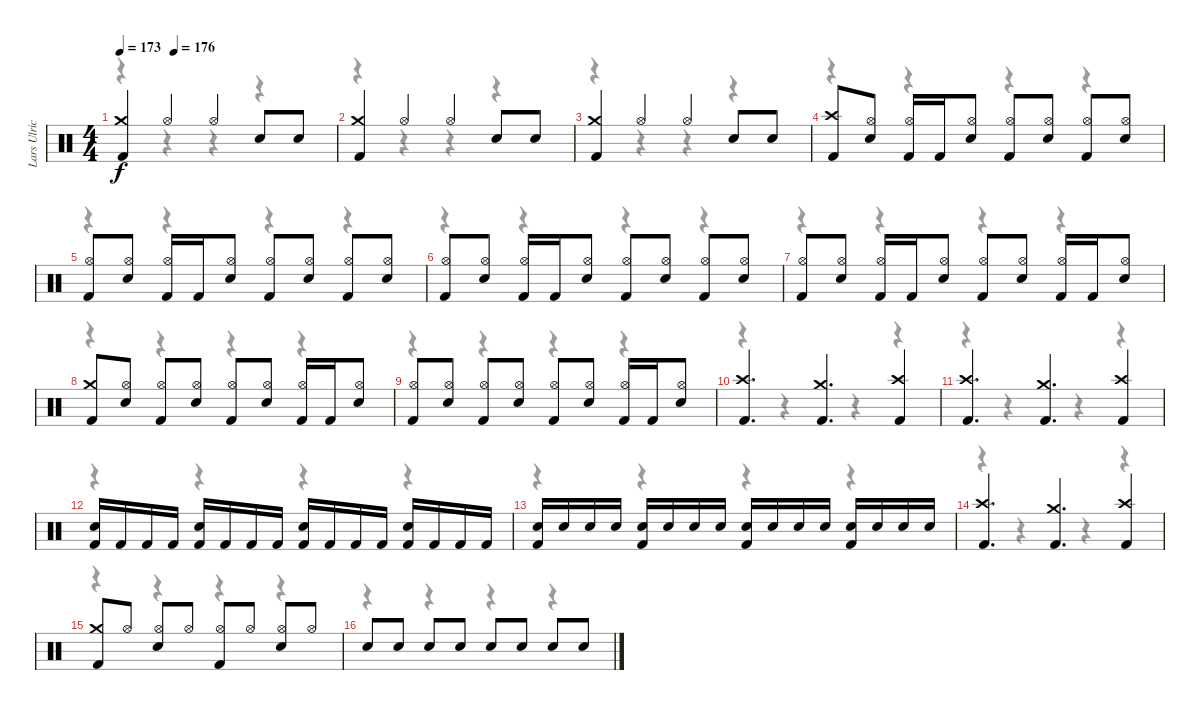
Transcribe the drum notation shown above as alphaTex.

\track ("Lars Ulrich" "Lars Ulric") {instrument percussion}
\staff {score}
\articulation defaults
\voice
\ts (4 4)
\tempo 173
\tempo (176 0.25)
\clef neutral
\ks c
("Crash medium (hit)" "Kick (hit) 2").4{dy f} "Hi-Hat (open)".4 "Hi-Hat (open)".4 "Snare (hit) 2".8 "Snare (hit) 2".8 |
("Crash medium (hit)" "Kick (hit) 2").4 "Hi-Hat (open)".4 "Hi-Hat (open)".4 "Snare (hit) 2".8 "Snare (hit) 2".8 |
("Crash medium (hit)" "Kick (hit) 2").4 "Hi-Hat (open)".4 "Hi-Hat (open)".4 "Snare (hit) 2".8 "Snare (hit) 2".8 |
("Crash high (hit)" "Kick (hit) 2").8 ("Hi-Hat (open)" "Snare (hit) 2").8 ("Hi-Hat (open)" "Kick (hit) 2").16 "Kick (hit) 2".16 ("Hi-Hat (open)" "Snare (hit) 2").8 ("Hi-Hat (open)" "Kick (hit) 2").8 ("Hi-Hat (open)" "Snare (hit) 2").8 ("Hi-Hat (open)" "Kick (hit) 2").8 ("Hi-Hat (open)" "Snare (hit) 2").8 |
("Hi-Hat (open)" "Kick (hit) 2").8 ("Hi-Hat (open)" "Snare (hit) 2").8 ("Hi-Hat (open)" "Kick (hit) 2").16 "Kick (hit) 2".16 ("Hi-Hat (open)" "Snare (hit) 2").8 ("Hi-Hat (open)" "Kick (hit) 2").8 ("Hi-Hat (open)" "Snare (hit) 2").8 ("Hi-Hat (open)" "Kick (hit) 2").8 ("Hi-Hat (open)" "Snare (hit) 2").8 |
("Hi-Hat (open)" "Kick (hit) 2").8 ("Hi-Hat (open)" "Snare (hit) 2").8 ("Hi-Hat (open)" "Kick (hit) 2").16 "Kick (hit) 2".16 ("Hi-Hat (open)" "Snare (hit) 2").8 ("Hi-Hat (open)" "Kick (hit) 2").8 ("Hi-Hat (open)" "Snare (hit) 2").8 ("Hi-Hat (open)" "Kick (hit) 2").8 ("Hi-Hat (open)" "Snare (hit) 2").8 |
("Hi-Hat (open)" "Kick (hit) 2").8 ("Hi-Hat (open)" "Snare (hit) 2").8 ("Hi-Hat (open)" "Kick (hit) 2").16 "Kick (hit) 2".16 ("Hi-Hat (open)" "Snare (hit) 2").8 ("Hi-Hat (open)" "Kick (hit) 2").8 ("Hi-Hat (open)" "Snare (hit) 2").8 ("Hi-Hat (open)" "Kick (hit) 2").16 "Kick (hit) 2".16 ("Hi-Hat (open)" "Snare (hit) 2").8 |
("Crash medium (hit)" "Kick (hit) 2").8 ("Hi-Hat (open)" "Snare (hit) 2").8 ("Hi-Hat (open)" "Kick (hit) 2").8 ("Hi-Hat (open)" "Snare (hit) 2").8 ("Hi-Hat (open)" "Kick (hit) 2").8 ("Hi-Hat (open)" "Snare (hit) 2").8 ("Hi-Hat (open)" "Kick (hit) 2").16 "Kick (hit) 2".16 ("Hi-Hat (open)" "Snare (hit) 2").8 |
("Hi-Hat (open)" "Kick (hit) 2").8 ("Hi-Hat (open)" "Snare (hit) 2").8 ("Hi-Hat (open)" "Kick (hit) 2").8 ("Hi-Hat (open)" "Snare (hit) 2").8 ("Hi-Hat (open)" "Kick (hit) 2").8 ("Hi-Hat (open)" "Snare (hit) 2").8 ("Hi-Hat (open)" "Kick (hit) 2").16 "Kick (hit) 2".16 ("Hi-Hat (open)" "Snare (hit) 2").8 |
("Crash high (hit)" "Kick (hit) 2").4{d} ("Crash medium (hit)" "Kick (hit) 2").4{d} ("Crash high (hit)" "Kick (hit) 2").4 |
("Crash high (hit)" "Kick (hit) 2").4{d} ("Crash medium (hit)" "Kick (hit) 2").4{d} ("Crash high (hit)" "Kick (hit) 2").4 |
("Kick (hit) 2" "Snare (hit) 2").16 "Kick (hit) 2".16 "Kick (hit) 2".16 "Kick (hit) 2".16 ("Kick (hit) 2" "Snare (hit) 2").16 "Kick (hit) 2".16 "Kick (hit) 2".16 "Kick (hit) 2".16 ("Kick (hit) 2" "Snare (hit) 2").16 "Kick (hit) 2".16 "Kick (hit) 2".16 "Kick (hit) 2".16 ("Kick (hit) 2" "Snare (hit) 2").16 "Kick (hit) 2".16 "Kick (hit) 2".16 "Kick (hit) 2".16 |
("Snare (hit) 2" "Kick (hit) 2").16 "Snare (hit) 2".16 "Snare (hit) 2".16 "Snare (hit) 2".16 ("Snare (hit) 2" "Kick (hit) 2").16 "Snare (hit) 2".16 "Snare (hit) 2".16 "Snare (hit) 2".16 ("Snare (hit) 2" "Kick (hit) 2").16 "Snare (hit) 2".16 "Snare (hit) 2".16 "Snare (hit) 2".16 ("Snare (hit) 2" "Kick (hit) 2").16 "Snare (hit) 2".16 "Snare (hit) 2".16 "Snare (hit) 2".16 |
("Crash high (hit)" "Kick (hit) 2").4{d} ("Crash medium (hit)" "Kick (hit) 2").4{d} ("Crash high (hit)" "Kick (hit) 2").4 |
("Crash medium (hit)" "Kick (hit) 2").8 "Hi-Hat (open)".8 ("Hi-Hat (open)" "Snare (hit) 2").8 "Hi-Hat (open)".8 ("Hi-Hat (open)" "Kick (hit) 2").8 "Hi-Hat (open)".8 ("Hi-Hat (open)" "Snare (hit) 2").8 "Hi-Hat (open)".8 |
"Snare (hit) 2".8 "Snare (hit) 2".8 "Snare (hit) 2".8 "Snare (hit) 2".8 "Snare (hit) 2".8 "Snare (hit) 2".8 "Snare (hit) 2".8 "Snare (hit) 2".8
\voice
\clef neutral
\ottava regular
\simile none
\ks c
r.4{dy f} r.4 r.4 r.4 |
r.4 r.4 r.4 r.4 |
r.4 r.4 r.4 r.4 |
r.4 r.4 r.4 r.4 |
r.4 r.4 r.4 r.4 |
r.4 r.4 r.4 r.4 |
r.4 r.4 r.4 r.4 |
r.4 r.4 r.4 r.4 |
r.4 r.4 r.4 r.4 |
r.4 r.4 r.4 r.4 |
r.4 r.4 r.4 r.4 |
r.4 r.4 r.4 r.4 |
r.4 r.4 r.4 r.4 |
r.4 r.4 r.4 r.4 |
r.4 r.4 r.4 r.4 |
r.4 r.4 r.4 r.4
